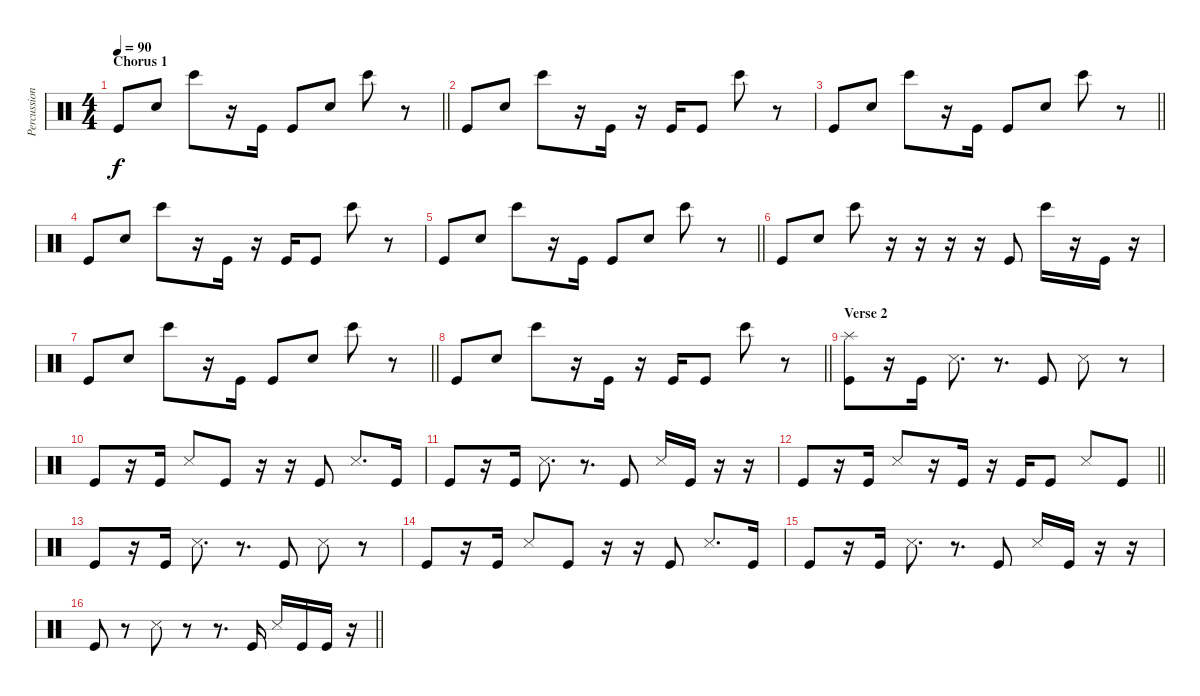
\track ("Percussion" "Percussion") {instrument percussion}
\staff {score}
\articulation defaults
\ts (4 4)
\section ("" "Chorus 1")
\tempo 90
\clef neutral
\barLineRight lightlight
\ks c "Kick (hit)".8{dy f volume 7} "Hand Clap (hit)".8 "Bongo High (hit)".8
r.16 "Kick (hit)".16 "Kick (hit)".8 "Hand Clap (hit)".8 "Bongo High (hit)".8 r.8 |
"Kick (hit)".8 "Hand Clap (hit)".8 "Bongo High (hit)".8 r.16 "Kick (hit)".16 r.16 "Kick (hit)".16 "Kick (hit)".8 "Bongo High (hit)".8 r.8 |
\barLineRight lightlight "Kick (hit)".8 "Hand Clap (hit)".8 "Bongo High (hit)".8
r.16 "Kick (hit)".16 "Kick (hit)".8 "Hand Clap (hit)".8 "Bongo High (hit)".8 r.8 |
"Kick (hit)".8 "Hand Clap (hit)".8 "Bongo High (hit)".8 r.16 "Kick (hit)".16 r.16 "Kick (hit)".16 "Kick (hit)".8 "Bongo High (hit)".8 r.8 |
\barLineRight lightlight "Kick (hit)".8 "Hand Clap (hit)".8 "Bongo High (hit)".8
r.16 "Kick (hit)".16 "Kick (hit)".8 "Hand Clap (hit)".8 "Bongo High (hit)".8 r.8 |
"Kick (hit)".8 "Hand Clap (hit)".8 "Bongo High (hit)".8 r.16 r.16 r.16 r.16 "Kick (hit)".8 "Bongo High (hit)".16 r.16 "Kick (hit)".16 r.16 |
\barLineRight lightlight "Kick (hit)".8 "Hand Clap (hit)".8 "Bongo High (hit)".8
r.16 "Kick (hit)".16 "Kick (hit)".8 "Hand Clap (hit)".8 "Bongo High (hit)".8 r.8 |
\barLineRight lightlight "Kick (hit)".8 "Hand Clap (hit)".8 "Bongo High (hit)".8
r.16 "Kick (hit)".16 r.16 "Kick (hit)".16 "Kick (hit)".8 "Bongo High (hit)".8 r.8 |
\section ("" "Verse 2")
("Splash (hit)" "Kick (hit)").8{volume 13} r.16 "Kick (hit)".16 "Snare (side stick) 3".8{d} r.8{d} "Kick (hit)".8 "Snare (side stick) 3".8 r.8 |
"Kick (hit)".8 r.16 "Kick (hit)".16 "Snare (side stick) 3".8 "Kick (hit)".8 r.16 r.16 "Kick (hit)".8 "Snare (side stick) 3".8{d} "Kick (hit)".16 |
"Kick (hit)".8 r.16 "Kick (hit)".16 "Snare (side stick) 3".8{d} r.8{d} "Kick (hit)".8 "Snare (side stick) 3".16 "Kick (hit)".16 r.16 r.16 |
\barLineRight lightlight "Kick (hit)".8
r.16 "Kick (hit)".16 "Snare (side stick) 3".8 r.16 "Kick (hit)".16 r.16 "Kick (hit)".16 "Kick (hit)".8 "Snare (side stick) 3".8 "Kick (hit)".8 |
"Kick (hit)".8 r.16 "Kick (hit)".16 "Snare (side stick) 3".8{d} r.8{d} "Kick (hit)".8 "Snare (side stick) 3".8 r.8 |
"Kick (hit)".8 r.16 "Kick (hit)".16 "Snare (side stick) 3".8 "Kick (hit)".8 r.16 r.16 "Kick (hit)".8 "Snare (side stick) 3".8{d} "Kick (hit)".16 |
"Kick (hit)".8 r.16 "Kick (hit)".16 "Snare (side stick) 3".8{d} r.8{d} "Kick (hit)".8 "Snare (side stick) 3".16 "Kick (hit)".16 r.16 r.16 |
\barLineRight lightlight "Kick (hit)".8
r.8 "Snare (side stick) 3".8 r.8 r.8{d} "Kick (hit)".16 "Snare (side stick) 3".16 "Kick (hit)".16 "Kick (hit)".16 r.16
